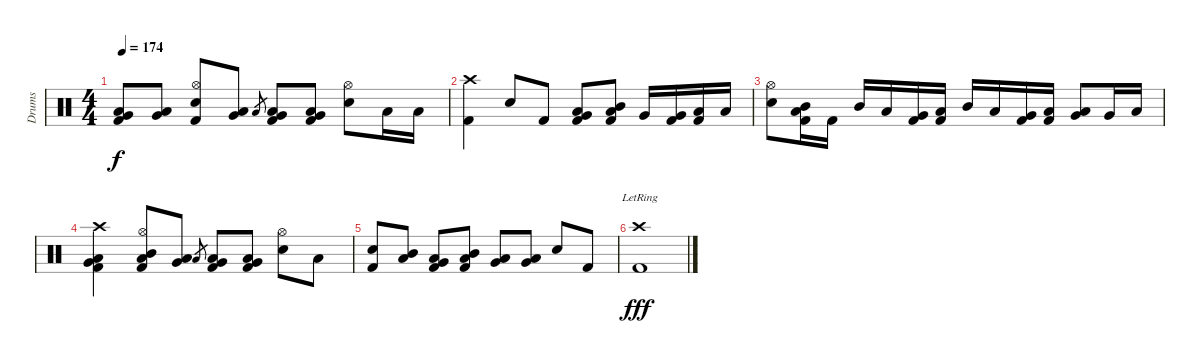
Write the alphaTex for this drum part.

\track ("Drums" "Drums") {instrument percussion}
\staff {score}
\articulation defaults
\ts (4 4)
\tempo 174
\clef neutral
\ks c
("Low Tom (hit)" "Very Low Tom (hit)" "Kick (hit) 2").8{dy f} ("Low Tom (hit)" "Very Low Tom (hit)").8 ("Hi-Hat (open)" "Electric Snare (hit)" "Kick (hit) 2").8 ("Low Tom (hit)" "Very Low Tom (hit)").8 "Low Tom (hit)".8{gr} ("Low Tom (hit)" "Very Low Tom (hit)" "Kick (hit) 2").8 ("Low Tom (hit)" "Very Low Tom (hit)" "Kick (hit) 2").8 ("Hi-Hat (open)" "Electric Snare (hit)").8 "Low Tom (hit)".16 "Low Tom (hit)".16 |
("Crash high (hit)" "Kick (hit) 2").4 "Electric Snare (hit)".8 "Kick (hit) 2".8 ("Low Tom (hit)" "Very Low Tom (hit)" "Kick (hit) 2").8 ("Mid Tom (hit)" "Low Tom (hit)" "Kick (hit) 2").8 "Very Low Tom (hit)".16 ("Very Low Tom (hit)" "Kick (hit) 2").16 ("Low Floor Tom (hit)" "Kick (hit) 2").16 "Low Floor Tom (hit)".16 |
("Hi-Hat (open)" "Electric Snare (hit)").8 ("Mid Tom (hit)" "Low Tom (hit)" "Kick (hit) 2").16 "Kick (hit) 2".16 "Mid Tom (hit)".16 "Low Tom (hit)".16 ("Very Low Tom (hit)" "Kick (hit) 2").16 ("Low Floor Tom (hit)" "Kick (hit) 2").16 "Mid Tom (hit)".16 "Low Tom (hit)".16 ("Very Low Tom (hit)" "Kick (hit) 2").16 ("Low Floor Tom (hit)" "Kick (hit) 2").16 ("Low Tom (hit)" "Very Low Tom (hit)").8 "Very Low Tom (hit)".16 "Low Floor Tom (hit)".16 |
("Crash high (hit)" "Low Tom (hit)" "Very Low Tom (hit)" "Kick (hit) 2").4 ("Hi-Hat (open)" "Mid Tom (hit)" "Low Tom (hit)" "Kick (hit) 2").8 ("Low Tom (hit)" "Very Low Tom (hit)").8 "Low Tom (hit)".8{gr} ("Low Tom (hit)" "Very Low Tom (hit)" "Kick (hit) 2").8 ("Low Tom (hit)" "Very Low Tom (hit)" "Kick (hit) 2").8 ("Hi-Hat (open)" "Electric Snare (hit)").8 "Low Tom (hit)".8 |
("Electric Snare (hit)" "Kick (hit) 2").8 ("Mid Tom (hit)" "Low Tom (hit)").8 ("Low Tom (hit)" "Very Low Tom (hit)" "Kick (hit) 2").8 ("Mid Tom (hit)" "Low Tom (hit)" "Kick (hit) 2").8 ("Low Tom (hit)" "Very Low Tom (hit)").8 ("Low Tom (hit)" "Very Low Tom (hit)").8 "Electric Snare (hit)".8 "Kick (hit) 2".8 |
("Crash high (hit)"{lr} "Kick (hit) 2").1{dy fff}
